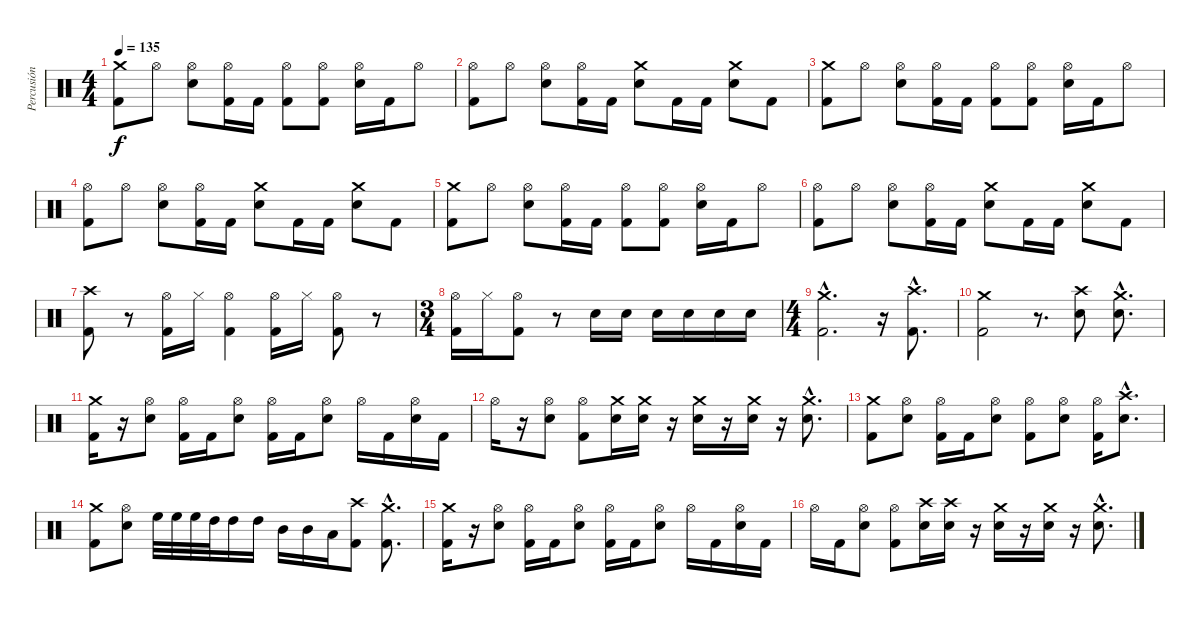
\track ("Percusión" "Percusión") {instrument percussion}
\staff {score}
\articulation defaults
\ts (4 4)
\tempo 135
\clef neutral
\ks c
("Crash medium (hit)" "Kick (hit) 2").8{dy f} "Hi-Hat (open)".8 ("Hi-Hat (open)" "Electric Snare (hit)").8 ("Hi-Hat (open)" "Kick (hit) 2").16 "Kick (hit) 2".16 ("Hi-Hat (open)" "Kick (hit) 2").8 ("Hi-Hat (open)" "Kick (hit) 2").8 ("Hi-Hat (open)" "Electric Snare (hit)").16 "Kick (hit) 2".16 "Hi-Hat (open)".8 |
("Hi-Hat (open)" "Kick (hit) 2").8 "Hi-Hat (open)".8 ("Hi-Hat (open)" "Electric Snare (hit)").8 ("Hi-Hat (open)" "Kick (hit) 2").16 "Kick (hit) 2".16 ("Crash medium (hit)" "Electric Snare (hit)").8 "Kick (hit) 2".16 "Kick (hit) 2".16 ("Crash medium (hit)" "Electric Snare (hit)").8 "Kick (hit) 2".8 |
("Crash medium (hit)" "Kick (hit) 2").8 "Hi-Hat (open)".8 ("Hi-Hat (open)" "Electric Snare (hit)").8 ("Hi-Hat (open)" "Kick (hit) 2").16 "Kick (hit) 2".16 ("Hi-Hat (open)" "Kick (hit) 2").8 ("Hi-Hat (open)" "Kick (hit) 2").8 ("Hi-Hat (open)" "Electric Snare (hit)").16 "Kick (hit) 2".16 "Hi-Hat (open)".8 |
("Hi-Hat (open)" "Kick (hit) 2").8 "Hi-Hat (open)".8 ("Hi-Hat (open)" "Electric Snare (hit)").8 ("Hi-Hat (open)" "Kick (hit) 2").16 "Kick (hit) 2".16 ("Crash medium (hit)" "Electric Snare (hit)").8 "Kick (hit) 2".16 "Kick (hit) 2".16 ("Crash medium (hit)" "Electric Snare (hit)").8 "Kick (hit) 2".8 |
("Crash medium (hit)" "Kick (hit) 2").8 "Hi-Hat (open)".8 ("Hi-Hat (open)" "Electric Snare (hit)").8 ("Hi-Hat (open)" "Kick (hit) 2").16 "Kick (hit) 2".16 ("Hi-Hat (open)" "Kick (hit) 2").8 ("Hi-Hat (open)" "Kick (hit) 2").8 ("Hi-Hat (open)" "Electric Snare (hit)").16 "Kick (hit) 2".16 "Hi-Hat (open)".8 |
("Hi-Hat (open)" "Kick (hit) 2").8 "Hi-Hat (open)".8 ("Hi-Hat (open)" "Electric Snare (hit)").8 ("Hi-Hat (open)" "Kick (hit) 2").16 "Kick (hit) 2".16 ("Crash medium (hit)" "Electric Snare (hit)").8 "Kick (hit) 2".16 "Kick (hit) 2".16 ("Crash medium (hit)" "Electric Snare (hit)").8 "Kick (hit) 2".8 |
("Crash high (hit)" "Kick (hit) 2").8 r.8 ("Hi-Hat (open)" "Kick (hit) 2").16 "Hi-Hat (closed)".16 ("Hi-Hat (open)" "Kick (hit) 2").4 ("Hi-Hat (open)" "Kick (hit) 2").16 "Hi-Hat (closed)".16 ("Hi-Hat (open)" "Kick (hit) 2").8 r.8 |
\ts (3 4)
("Hi-Hat (open)" "Kick (hit) 2").16 "Hi-Hat (closed)".16 ("Hi-Hat (open)" "Kick (hit) 2").8 r.8 "Electric Snare (hit)".16 "Electric Snare (hit)".16 "Electric Snare (hit)".16 "Electric Snare (hit)".16 "Electric Snare (hit)".16 "Electric Snare (hit)".16 |
\ts (4 4)
("Crash medium (hit)"{hac} "Kick (hit) 2"{hac}).2{d} r.16 ("Crash high (hit)"{hac} "Kick (hit) 2"{hac}).8{d} |
("Crash medium (hit)" "Kick (hit) 2").2 r.8{d} ("Crash high (hit)" "Electric Snare (hit)").8 ("Crash medium (hit)"{hac} "Electric Snare (hit)"{hac}).8{d} |
("Crash medium (hit)" "Kick (hit) 2").16 r.16 ("Hi-Hat (open)" "Electric Snare (hit)").8 ("Hi-Hat (open)" "Kick (hit) 2").16 "Kick (hit) 2".16 ("Hi-Hat (open)" "Electric Snare (hit)").8 ("Hi-Hat (open)" "Kick (hit) 2").16 "Kick (hit) 2".16 ("Hi-Hat (open)" "Electric Snare (hit)").8 "Hi-Hat (open)".16 "Kick (hit) 2".16 ("Hi-Hat (open)" "Electric Snare (hit)").16 "Kick (hit) 2".16 |
"Hi-Hat (open)".16 r.16 ("Hi-Hat (open)" "Electric Snare (hit)").8 ("Hi-Hat (open)" "Kick (hit) 2").8 ("Crash medium (hit)" "Electric Snare (hit)").16 ("Crash medium (hit)" "Electric Snare (hit)").16 r.16 ("Crash medium (hit)" "Electric Snare (hit)").16 r.16 ("Crash medium (hit)" "Electric Snare (hit)").16 r.16 ("Crash medium (hit)"{hac} "Electric Snare (hit)"{hac}).8{d} |
("Crash medium (hit)" "Kick (hit) 2").8 ("Hi-Hat (open)" "Electric Snare (hit)").8 ("Hi-Hat (open)" "Kick (hit) 2").16 "Kick (hit) 2".16 ("Hi-Hat (open)" "Electric Snare (hit)").8 ("Hi-Hat (open)" "Kick (hit) 2").8 ("Hi-Hat (open)" "Electric Snare (hit)").8 ("Hi-Hat (open)" "Kick (hit) 2").16 ("Crash high (hit)"{hac} "Electric Snare (hit)"{hac}).8{d} |
("Crash medium (hit)" "Kick (hit) 2").8 ("Hi-Hat (open)" "Electric Snare (hit)").8 "High Floor Tom (hit)".32 "High Floor Tom (hit)".32 "High Floor Tom (hit)".32 "High Tom (hit)".32 "High Tom (hit)".16 "High Tom (hit)".16 "Mid Tom (hit)".16 "Mid Tom (hit)".16 "Low Tom (hit)".16 ("Crash high (hit)" "Kick (hit) 2").8 ("Crash medium (hit)"{hac} "Kick (hit) 2"{hac}).8{d} |
("Crash medium (hit)" "Kick (hit) 2").16 r.16 ("Hi-Hat (open)" "Electric Snare (hit)").8 ("Hi-Hat (open)" "Kick (hit) 2").16 "Kick (hit) 2".16 ("Hi-Hat (open)" "Electric Snare (hit)").8 ("Hi-Hat (open)" "Kick (hit) 2").16 "Kick (hit) 2".16 ("Hi-Hat (open)" "Electric Snare (hit)").8 "Hi-Hat (open)".16 "Kick (hit) 2".16 ("Hi-Hat (open)" "Electric Snare (hit)").16 "Kick (hit) 2".16 |
"Hi-Hat (open)".16 "Kick (hit) 2".16 ("Hi-Hat (open)" "Electric Snare (hit)").8 ("Hi-Hat (open)" "Kick (hit) 2").8 ("Crash high (hit)" "Electric Snare (hit)").16 ("Crash high (hit)" "Electric Snare (hit)").16 r.16 ("Crash medium (hit)" "Electric Snare (hit)").16 r.16 ("Crash medium (hit)" "Electric Snare (hit)").16 r.16 ("Crash medium (hit)"{hac} "Electric Snare (hit)"{hac}).8{d}
